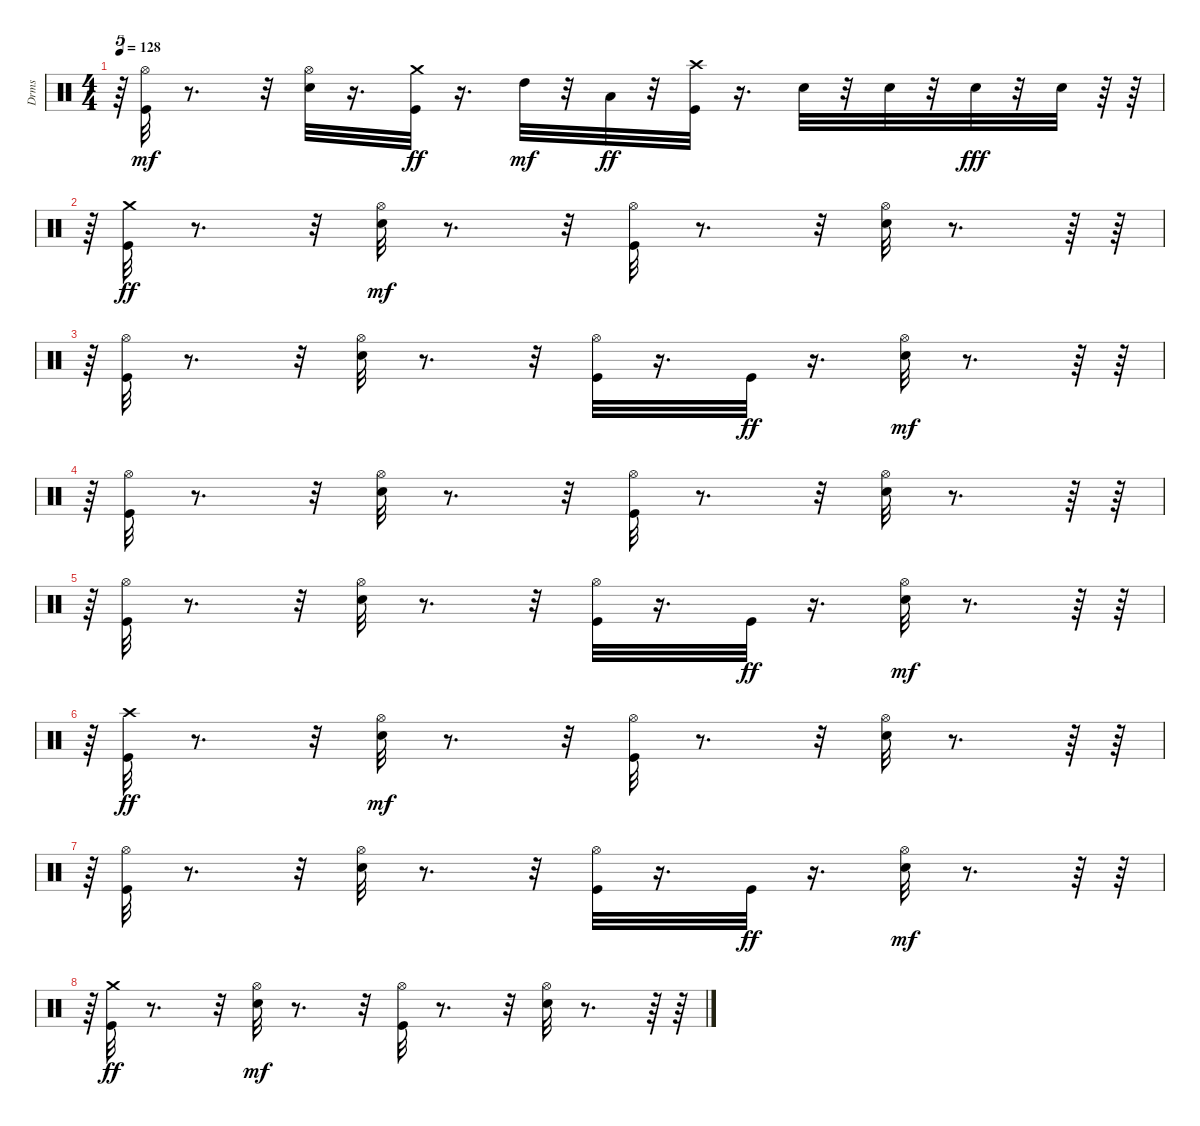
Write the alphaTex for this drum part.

\track ("Drms" "Drms") {instrument percussion}
\staff {score}
\articulation defaults
\ts (4 4)
\tempo 128
\clef neutral
\ks c
r.64{tu (5 4) dy mf} ("Kick (hit)" "Hi-Hat (open)").32 r.8{d} r.32 ("Snare (hit) 2" "Hi-Hat (open)").32 r.16{d} ("Crash medium (hit)" "Kick (hit)").32{dy ff} r.16{d} "High Tom (hit)".32{dy mf} r.32 "Low Tom (hit)".32{dy ff} r.32 ("Crash high (hit)" "Kick (hit)").32 r.16{d} "Snare (hit) 2".32 r.32 "Snare (hit) 2".32 r.32 "Snare (hit) 2".32{dy fff} r.32 "Snare (hit) 2".32 r.64 r.64 |
r.64{tu (5 4)} ("Kick (hit)" "Crash medium (hit)").32{dy ff} r.8{d} r.32 ("Snare (hit) 2" "Hi-Hat (open)").32{dy mf} r.8{d} r.32 ("Kick (hit)" "Hi-Hat (open)").32 r.8{d} r.32 ("Snare (hit) 2" "Hi-Hat (open)").32 r.8{d} r.64 r.64 |
r.64{tu (5 4)} ("Kick (hit)" "Hi-Hat (open)").32 r.8{d} r.32 ("Snare (hit) 2" "Hi-Hat (open)").32 r.8{d} r.32 ("Kick (hit)" "Hi-Hat (open)").32 r.16{d} "Kick (hit)".32{dy ff} r.16{d} ("Snare (hit) 2" "Hi-Hat (open)").32{dy mf} r.8{d} r.64 r.64 |
r.64{tu (5 4)} ("Kick (hit)" "Hi-Hat (open)").32 r.8{d} r.32 ("Snare (hit) 2" "Hi-Hat (open)").32 r.8{d} r.32 ("Kick (hit)" "Hi-Hat (open)").32 r.8{d} r.32 ("Snare (hit) 2" "Hi-Hat (open)").32 r.8{d} r.64 r.64 |
r.64{tu (5 4)} ("Kick (hit)" "Hi-Hat (open)").32 r.8{d} r.32 ("Snare (hit) 2" "Hi-Hat (open)").32 r.8{d} r.32 ("Kick (hit)" "Hi-Hat (open)").32 r.16{d} "Kick (hit)".32{dy ff} r.16{d} ("Snare (hit) 2" "Hi-Hat (open)").32{dy mf} r.8{d} r.64 r.64 |
r.64{tu (5 4)} ("Kick (hit)" "Crash high (hit)").32{dy ff} r.8{d} r.32 ("Snare (hit) 2" "Hi-Hat (open)").32{dy mf} r.8{d} r.32 ("Kick (hit)" "Hi-Hat (open)").32 r.8{d} r.32 ("Snare (hit) 2" "Hi-Hat (open)").32 r.8{d} r.64 r.64 |
r.64{tu (5 4)} ("Kick (hit)" "Hi-Hat (open)").32 r.8{d} r.32 ("Snare (hit) 2" "Hi-Hat (open)").32 r.8{d} r.32 ("Kick (hit)" "Hi-Hat (open)").32 r.16{d} "Kick (hit)".32{dy ff} r.16{d} ("Snare (hit) 2" "Hi-Hat (open)").32{dy mf} r.8{d} r.64 r.64 |
r.64{tu (5 4)} ("Kick (hit)" "Crash medium (hit)").32{dy ff} r.8{d} r.32 ("Snare (hit) 2" "Hi-Hat (open)").32{dy mf} r.8{d} r.32 ("Kick (hit)" "Hi-Hat (open)").32 r.8{d} r.32 ("Snare (hit) 2" "Hi-Hat (open)").32 r.8{d} r.64 r.64
